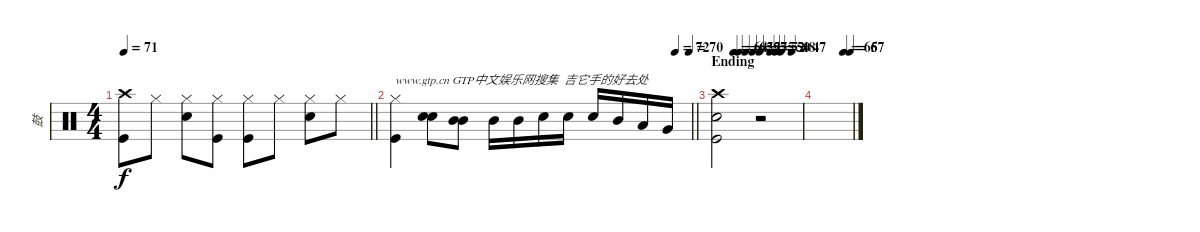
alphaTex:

\track ("鼓" "鼓") {instrument percussion}
\staff {score}
\articulation defaults
\ts (4 4)
\tempo 71
\clef neutral
\barLineRight lightlight
\ks c
("Crash high (hit)" "Kick (hit)").8{dy f} "Hi-Hat (closed)".8 ("Hi-Hat (closed)" "Electric Snare (hit)").8 ("Hi-Hat (closed)" "Kick (hit)").8 ("Hi-Hat (closed)" "Kick (hit)").8 "Hi-Hat (closed)".8 ("Hi-Hat (closed)" "Electric Snare (hit)").8 "Hi-Hat (closed)".8 |
\tempo (72 0.9479166666666666)
\tempo (70 0.9947916666666666)
\barLineRight lightlight
("Hi-Hat (closed)" "Kick (hit)").4{txt "www.gtp.cn GTP中文娱乐网搜集  吉它手的好去处"} ("Electric Snare (hit)" "Electric Snare (hit)").8 ("Mid Tom (hit)" "Mid Tom (hit)").8 "Mid Tom (hit)".16 "Mid Tom (hit)".16 "Electric Snare (hit)".16 "Electric Snare (hit)".16 "Electric Snare (hit)".16 "Mid Tom (hit)".16 "Low Tom (hit)".16 "Very Low Tom (hit)".16 |
\section ("" "Ending")
\tempo (64 0.19791666666666666)
\tempo (62 0.2604166666666667)
\tempo (59 0.34375)
\tempo (57 0.4270833333333333)
\tempo (55 0.5104166666666666)
\tempo (52 0.6354166666666666)
\tempo (50 0.6979166666666666)
\tempo (48 0.7604166666666666)
\tempo (47 0.8854166666666666)
("Crash high (hit)" "Electric Snare (hit)" "Kick (hit)").2 r.2 |
\tempo (65 0.7604166666666666)
\tempo (67 0.9479166666666666)
